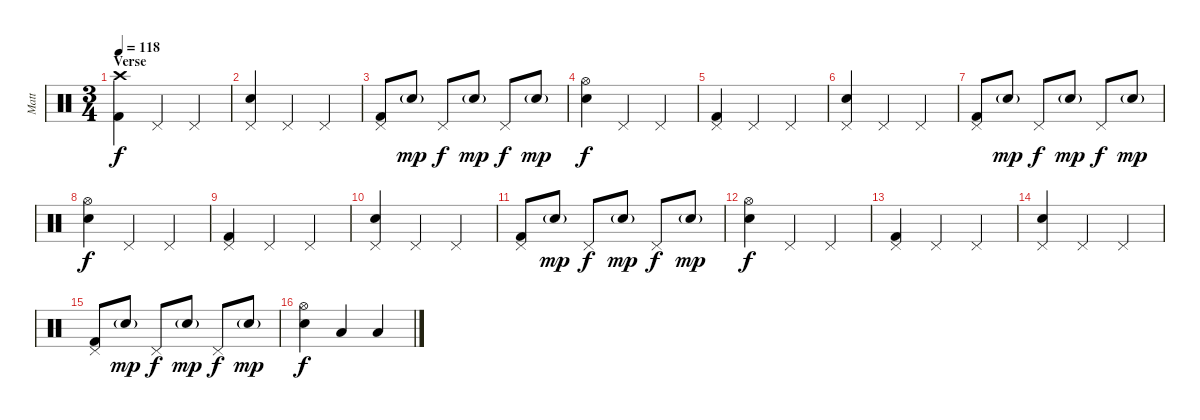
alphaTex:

\track ("Matt" "Matt") {instrument percussion}
\staff {score}
\articulation defaults
\ts (3 4)
\section ("" "Verse")
\tempo 118
\clef neutral
\ks c
("Crash high (hit)" "Kick (hit) 2").4{dy f} "Pedal Hi-Hat (hit)".4 "Pedal Hi-Hat (hit)".4 |
("Pedal Hi-Hat (hit)" "Snare (hit) 2").4 "Pedal Hi-Hat (hit)".4 "Pedal Hi-Hat (hit)".4 |
("Pedal Hi-Hat (hit)" "Kick (hit) 2").8 "Snare (hit) 2"{g}.8{dy mp} "Pedal Hi-Hat (hit)".8{dy f} "Snare (hit) 2"{g}.8{dy mp} "Pedal Hi-Hat (hit)".8{dy f} "Snare (hit) 2"{g}.8{dy mp} |
("Hi-Hat (open)" "Snare (hit) 2").4{dy f} "Pedal Hi-Hat (hit)".4 "Pedal Hi-Hat (hit)".4 |
("Pedal Hi-Hat (hit)" "Kick (hit) 2").4 "Pedal Hi-Hat (hit)".4 "Pedal Hi-Hat (hit)".4 |
("Pedal Hi-Hat (hit)" "Snare (hit) 2").4 "Pedal Hi-Hat (hit)".4 "Pedal Hi-Hat (hit)".4 |
("Pedal Hi-Hat (hit)" "Kick (hit) 2").8 "Snare (hit) 2"{g}.8{dy mp} "Pedal Hi-Hat (hit)".8{dy f} "Snare (hit) 2"{g}.8{dy mp} "Pedal Hi-Hat (hit)".8{dy f} "Snare (hit) 2"{g}.8{dy mp} |
("Hi-Hat (open)" "Snare (hit) 2").4{dy f} "Pedal Hi-Hat (hit)".4 "Pedal Hi-Hat (hit)".4 |
("Pedal Hi-Hat (hit)" "Kick (hit) 2").4 "Pedal Hi-Hat (hit)".4 "Pedal Hi-Hat (hit)".4 |
("Pedal Hi-Hat (hit)" "Snare (hit) 2").4 "Pedal Hi-Hat (hit)".4 "Pedal Hi-Hat (hit)".4 |
("Pedal Hi-Hat (hit)" "Kick (hit) 2").8 "Snare (hit) 2"{g}.8{dy mp} "Pedal Hi-Hat (hit)".8{dy f} "Snare (hit) 2"{g}.8{dy mp} "Pedal Hi-Hat (hit)".8{dy f} "Snare (hit) 2"{g}.8{dy mp} |
("Hi-Hat (open)" "Snare (hit) 2").4{dy f} "Pedal Hi-Hat (hit)".4 "Pedal Hi-Hat (hit)".4 |
("Pedal Hi-Hat (hit)" "Kick (hit) 2").4 "Pedal Hi-Hat (hit)".4 "Pedal Hi-Hat (hit)".4 |
("Pedal Hi-Hat (hit)" "Snare (hit) 2").4 "Pedal Hi-Hat (hit)".4 "Pedal Hi-Hat (hit)".4 |
("Pedal Hi-Hat (hit)" "Kick (hit) 2").8 "Electric Snare (hit)"{g}.8{dy mp} "Pedal Hi-Hat (hit)".8{dy f} "Snare (hit) 2"{g}.8{dy mp} "Pedal Hi-Hat (hit)".8{dy f} "Snare (hit) 2"{g}.8{dy mp} |
("Hi-Hat (open)" "Snare (hit) 2").4{dy f} "Low Tom (hit)".4 "Low Floor Tom (hit)".4
